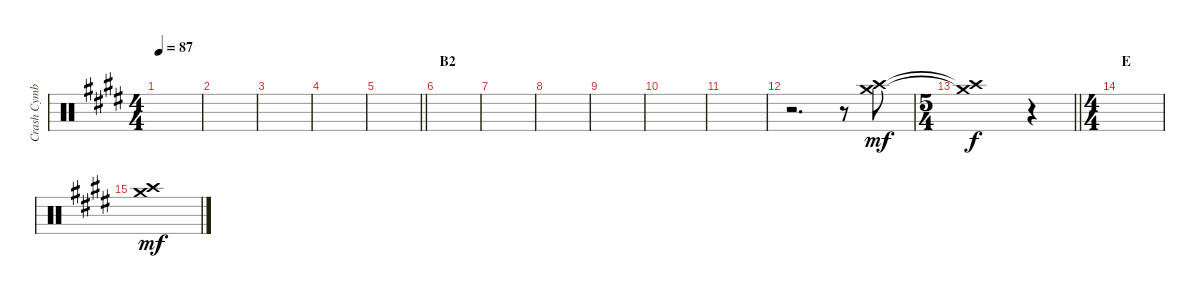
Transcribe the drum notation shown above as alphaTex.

\track ("Crash Cymbal" "Crash Cymb") {instrument percussion}
\staff {score}
\articulation defaults
\ts (4 4)
\tempo 87
\clef neutral
\ks e
|
|
|
|
\barLineRight lightlight
|
\section ("" "B2")
|
|
|
|
|
|
r.2{d} r.8 ("Crash high (hit)" "Crash medium (hit)").8{dy mf} |
\ts (5 4)
\barLineRight lightlight
("Crash high (hit)"{t} "Crash medium (hit)"{t}).1{dy f} r.4 |
\ts (4 4)
\section ("" "E")
|
("Crash high (hit)" "Crash medium (hit)").1{dy mf}
